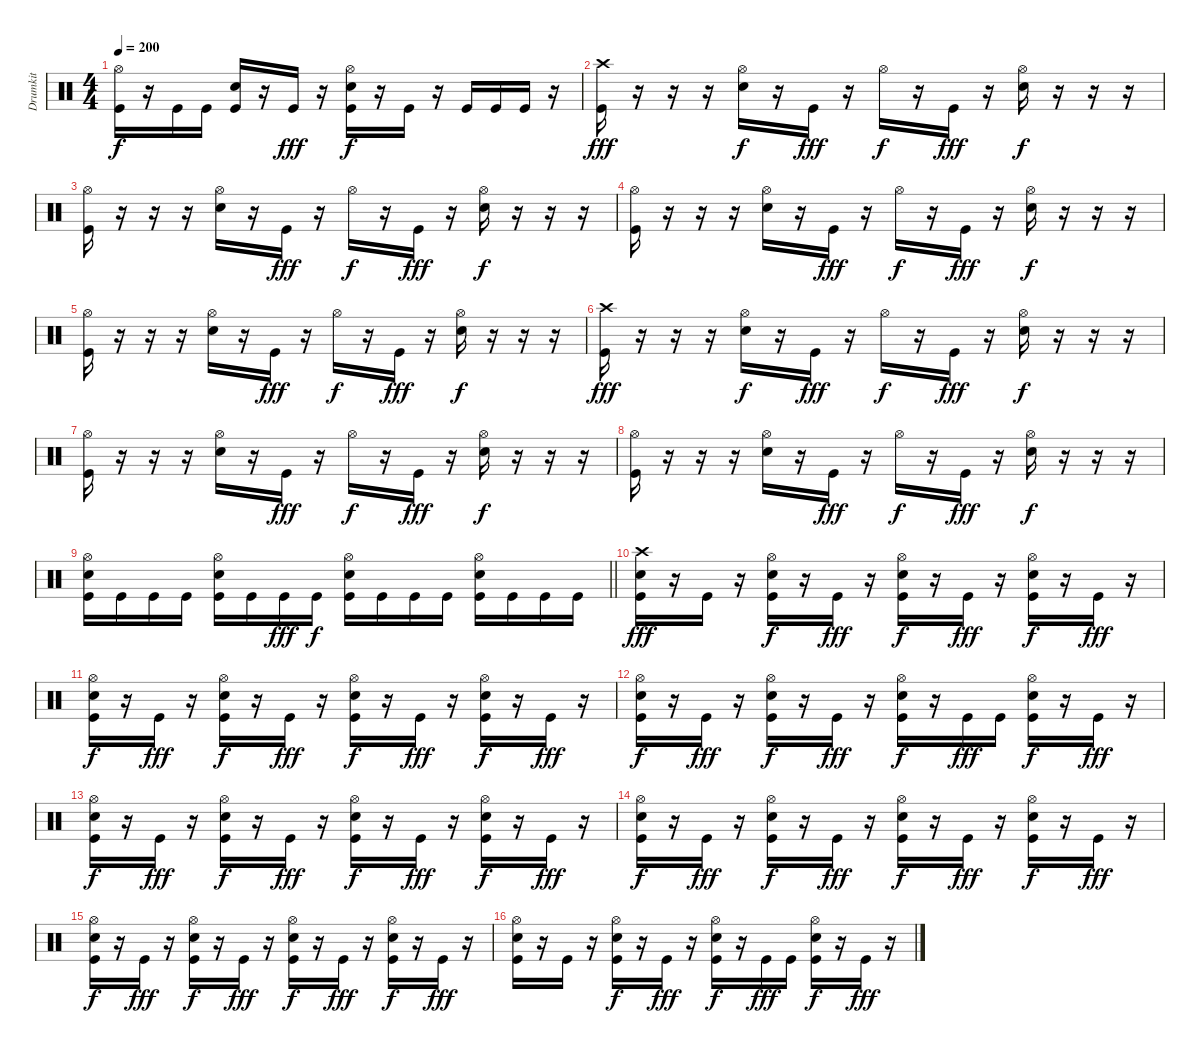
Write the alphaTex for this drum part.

\track ("Drumkit" "Drumkit") {instrument percussion}
\staff {score}
\articulation defaults
\ts (4 4)
\tempo 200
\clef neutral
\ks c
("Hi-Hat (open)" "Kick (hit)").16{dy f} r.16 "Kick (hit)".16 "Kick (hit)".16 ("Snare (hit) 2" "Kick (hit)").16 r.16 "Kick (hit)".16{dy fff} r.16 ("Hi-Hat (open)" "Snare (hit) 2" "Kick (hit)").16{dy f} r.16 "Kick (hit)".16 r.16 "Kick (hit)".16 "Kick (hit)".16 "Kick (hit)".16 r.16 |
("Crash high (hit)" "Kick (hit)").16{dy fff} r.16 r.16 r.16 ("Hi-Hat (open)" "Snare (hit) 2").16{dy f} r.16 "Kick (hit)".16{dy fff} r.16 "Hi-Hat (open)".16{dy f} r.16 "Kick (hit)".16{dy fff} r.16 ("Hi-Hat (open)" "Snare (hit) 2").16{dy f} r.16 r.16 r.16 |
("Hi-Hat (open)" "Kick (hit)").16 r.16 r.16 r.16 ("Hi-Hat (open)" "Snare (hit) 2").16 r.16 "Kick (hit)".16{dy fff} r.16 "Hi-Hat (open)".16{dy f} r.16 "Kick (hit)".16{dy fff} r.16 ("Hi-Hat (open)" "Snare (hit) 2").16{dy f} r.16 r.16 r.16 |
("Hi-Hat (open)" "Kick (hit)").16 r.16 r.16 r.16 ("Hi-Hat (open)" "Snare (hit) 2").16 r.16 "Kick (hit)".16{dy fff} r.16 "Hi-Hat (open)".16{dy f} r.16 "Kick (hit)".16{dy fff} r.16 ("Hi-Hat (open)" "Snare (hit) 2").16{dy f} r.16 r.16 r.16 |
("Hi-Hat (open)" "Kick (hit)").16 r.16 r.16 r.16 ("Hi-Hat (open)" "Snare (hit) 2").16 r.16 "Kick (hit)".16{dy fff} r.16 "Hi-Hat (open)".16{dy f} r.16 "Kick (hit)".16{dy fff} r.16 ("Hi-Hat (open)" "Snare (hit) 2").16{dy f} r.16 r.16 r.16 |
("Crash high (hit)" "Kick (hit)").16{dy fff} r.16 r.16 r.16 ("Hi-Hat (open)" "Snare (hit) 2").16{dy f} r.16 "Kick (hit)".16{dy fff} r.16 "Hi-Hat (open)".16{dy f} r.16 "Kick (hit)".16{dy fff} r.16 ("Hi-Hat (open)" "Snare (hit) 2").16{dy f} r.16 r.16 r.16 |
("Hi-Hat (open)" "Kick (hit)").16 r.16 r.16 r.16 ("Hi-Hat (open)" "Snare (hit) 2").16 r.16 "Kick (hit)".16{dy fff} r.16 "Hi-Hat (open)".16{dy f} r.16 "Kick (hit)".16{dy fff} r.16 ("Hi-Hat (open)" "Snare (hit) 2").16{dy f} r.16 r.16 r.16 |
("Hi-Hat (open)" "Kick (hit)").16 r.16 r.16 r.16 ("Hi-Hat (open)" "Snare (hit) 2").16 r.16 "Kick (hit)".16{dy fff} r.16 "Hi-Hat (open)".16{dy f} r.16 "Kick (hit)".16{dy fff} r.16 ("Hi-Hat (open)" "Snare (hit) 2").16{dy f} r.16 r.16 r.16 |
\barLineRight lightlight
("Hi-Hat (open)" "Snare (hit) 2" "Kick (hit)").16 "Kick (hit)".16 "Kick (hit)".16 "Kick (hit)".16 ("Hi-Hat (open)" "Snare (hit) 2" "Kick (hit)").16 "Kick (hit)".16 "Kick (hit)".16{dy fff} "Kick (hit)".16{dy f} ("Hi-Hat (open)" "Snare (hit) 2" "Kick (hit)").16 "Kick (hit)".16 "Kick (hit)".16 "Kick (hit)".16 ("Hi-Hat (open)" "Snare (hit) 2" "Kick (hit)").16 "Kick (hit)".16 "Kick (hit)".16 "Kick (hit)".16 |
("Crash high (hit)" "Snare (hit) 2" "Kick (hit)").16{dy fff} r.16 "Kick (hit)".16 r.16 ("Hi-Hat (open)" "Snare (hit) 2" "Kick (hit)").16{dy f} r.16 "Kick (hit)".16{dy fff} r.16 ("Hi-Hat (open)" "Snare (hit) 2" "Kick (hit)").16{dy f} r.16 "Kick (hit)".16{dy fff} r.16 ("Hi-Hat (open)" "Snare (hit) 2" "Kick (hit)").16{dy f} r.16 "Kick (hit)".16{dy fff} r.16 |
("Hi-Hat (open)" "Snare (hit) 2" "Kick (hit)").16{dy f} r.16 "Kick (hit)".16{dy fff} r.16 ("Hi-Hat (open)" "Snare (hit) 2" "Kick (hit)").16{dy f} r.16 "Kick (hit)".16{dy fff} r.16 ("Hi-Hat (open)" "Snare (hit) 2" "Kick (hit)").16{dy f} r.16 "Kick (hit)".16{dy fff} r.16 ("Hi-Hat (open)" "Snare (hit) 2" "Kick (hit)").16{dy f} r.16 "Kick (hit)".16{dy fff} r.16 |
("Hi-Hat (open)" "Snare (hit) 2" "Kick (hit)").16{dy f} r.16 "Kick (hit)".16{dy fff} r.16 ("Hi-Hat (open)" "Snare (hit) 2" "Kick (hit)").16{dy f} r.16 "Kick (hit)".16{dy fff} r.16 ("Hi-Hat (open)" "Snare (hit) 2" "Kick (hit)").16{dy f} r.16 "Kick (hit)".16{dy fff} "Kick (hit)".16 ("Hi-Hat (open)" "Snare (hit) 2" "Kick (hit)").16{dy f} r.16 "Kick (hit)".16{dy fff} r.16 |
("Hi-Hat (open)" "Snare (hit) 2" "Kick (hit)").16{dy f} r.16 "Kick (hit)".16{dy fff} r.16 ("Hi-Hat (open)" "Snare (hit) 2" "Kick (hit)").16{dy f} r.16 "Kick (hit)".16{dy fff} r.16 ("Hi-Hat (open)" "Snare (hit) 2" "Kick (hit)").16{dy f} r.16 "Kick (hit)".16{dy fff} r.16 ("Hi-Hat (open)" "Snare (hit) 2" "Kick (hit)").16{dy f} r.16 "Kick (hit)".16{dy fff} r.16 |
("Hi-Hat (open)" "Snare (hit) 2" "Kick (hit)").16{dy f} r.16 "Kick (hit)".16{dy fff} r.16 ("Hi-Hat (open)" "Snare (hit) 2" "Kick (hit)").16{dy f} r.16 "Kick (hit)".16{dy fff} r.16 ("Hi-Hat (open)" "Snare (hit) 2" "Kick (hit)").16{dy f} r.16 "Kick (hit)".16{dy fff} r.16 ("Hi-Hat (open)" "Snare (hit) 2" "Kick (hit)").16{dy f} r.16 "Kick (hit)".16{dy fff} r.16 |
("Hi-Hat (open)" "Snare (hit) 2" "Kick (hit)").16{dy f} r.16 "Kick (hit)".16{dy fff} r.16 ("Hi-Hat (open)" "Snare (hit) 2" "Kick (hit)").16{dy f} r.16 "Kick (hit)".16{dy fff} r.16 ("Hi-Hat (open)" "Snare (hit) 2" "Kick (hit)").16{dy f} r.16 "Kick (hit)".16{dy fff} r.16 ("Hi-Hat (open)" "Snare (hit) 2" "Kick (hit)").16{dy f} r.16 "Kick (hit)".16{dy fff} r.16 |
("Hi-Hat (open)" "Snare (hit) 2" "Kick (hit)").16 r.16 "Kick (hit)".16 r.16 ("Hi-Hat (open)" "Snare (hit) 2" "Kick (hit)").16{dy f} r.16 "Kick (hit)".16{dy fff} r.16 ("Hi-Hat (open)" "Snare (hit) 2" "Kick (hit)").16{dy f} r.16 "Kick (hit)".16{dy fff} "Kick (hit)".16 ("Hi-Hat (open)" "Snare (hit) 2" "Kick (hit)").16{dy f} r.16 "Kick (hit)".16{dy fff} r.16
